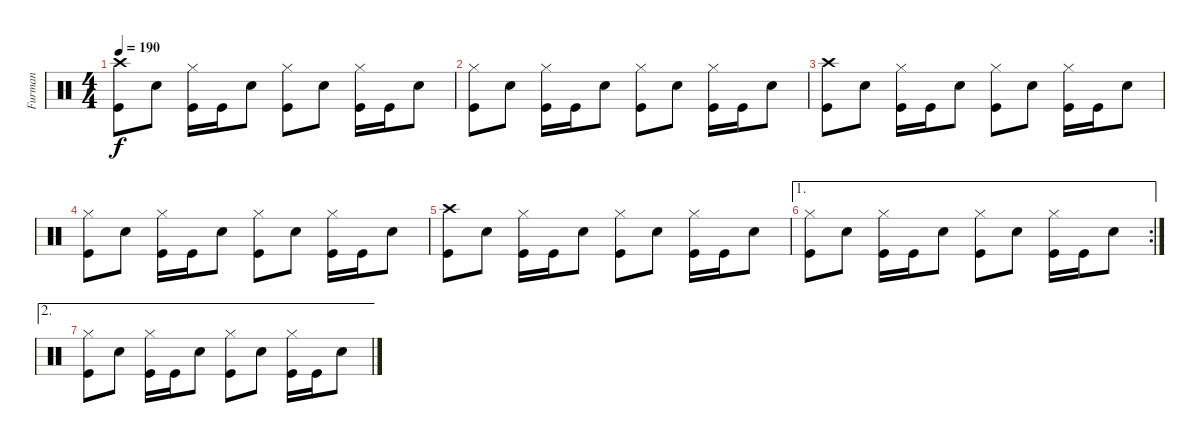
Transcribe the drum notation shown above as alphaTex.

\track ("Furman" "Furman") {instrument percussion}
\staff {score}
\articulation defaults
\ts (4 4)
\tempo 190
\clef neutral
\ks c
("Crash high (hit)" "Kick (hit)").8{dy f} "Electric Snare (hit)".8 ("Hi-Hat (closed)" "Kick (hit)").16 "Kick (hit)".16 "Electric Snare (hit)".8 ("Hi-Hat (closed)" "Kick (hit)").8 "Electric Snare (hit)".8 ("Hi-Hat (closed)" "Kick (hit)").16 "Kick (hit)".16 "Electric Snare (hit)".8 |
("Hi-Hat (closed)" "Kick (hit)").8 "Electric Snare (hit)".8 ("Hi-Hat (closed)" "Kick (hit)").16 "Kick (hit)".16 "Electric Snare (hit)".8 ("Hi-Hat (closed)" "Kick (hit)").8 "Electric Snare (hit)".8 ("Hi-Hat (closed)" "Kick (hit)").16 "Kick (hit)".16 "Electric Snare (hit)".8 |
("Crash high (hit)" "Kick (hit)").8 "Electric Snare (hit)".8 ("Hi-Hat (closed)" "Kick (hit)").16 "Kick (hit)".16 "Electric Snare (hit)".8 ("Hi-Hat (closed)" "Kick (hit)").8 "Electric Snare (hit)".8 ("Hi-Hat (closed)" "Kick (hit)").16 "Kick (hit)".16 "Electric Snare (hit)".8 |
("Hi-Hat (closed)" "Kick (hit)").8 "Electric Snare (hit)".8 ("Hi-Hat (closed)" "Kick (hit)").16 "Kick (hit)".16 "Electric Snare (hit)".8 ("Hi-Hat (closed)" "Kick (hit)").8 "Electric Snare (hit)".8 ("Hi-Hat (closed)" "Kick (hit)").16 "Kick (hit)".16 "Electric Snare (hit)".8 |
("Crash high (hit)" "Kick (hit)").8 "Electric Snare (hit)".8 ("Hi-Hat (closed)" "Kick (hit)").16 "Kick (hit)".16 "Electric Snare (hit)".8 ("Hi-Hat (closed)" "Kick (hit)").8 "Electric Snare (hit)".8 ("Hi-Hat (closed)" "Kick (hit)").16 "Kick (hit)".16 "Electric Snare (hit)".8 |
\ae 1
\rc 2
("Hi-Hat (closed)" "Kick (hit)").8 "Electric Snare (hit)".8 ("Hi-Hat (closed)" "Kick (hit)").16 "Kick (hit)".16 "Electric Snare (hit)".8 ("Hi-Hat (closed)" "Kick (hit)").8 "Electric Snare (hit)".8 ("Hi-Hat (closed)" "Kick (hit)").16 "Kick (hit)".16 "Electric Snare (hit)".8 |
\ae 2
("Hi-Hat (closed)" "Kick (hit)").8 "Electric Snare (hit)".8 ("Hi-Hat (closed)" "Kick (hit)").16 "Kick (hit)".16 "Electric Snare (hit)".8 ("Hi-Hat (closed)" "Kick (hit)").8 "Electric Snare (hit)".8 ("Hi-Hat (closed)" "Kick (hit)").16 "Kick (hit)".16 "Electric Snare (hit)".8
